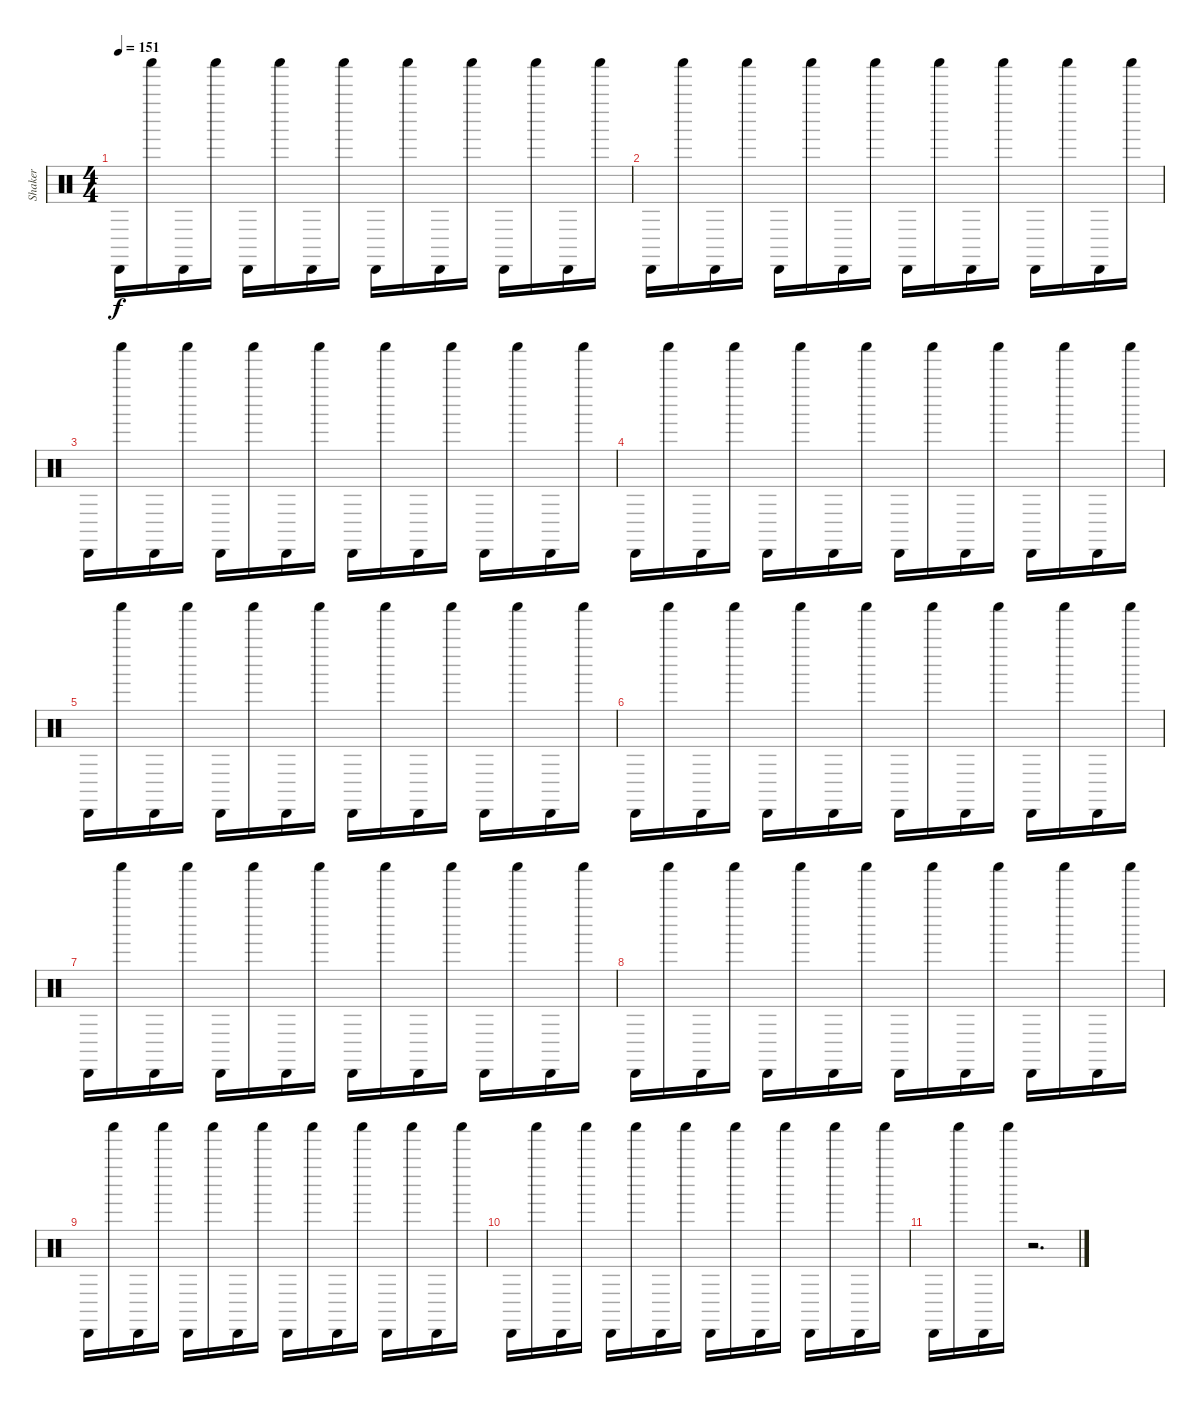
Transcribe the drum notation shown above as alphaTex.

\track ("Shaker" "Shaker") {instrument percussion}
\staff {score}
\articulation defaults
\ts (4 4)
\tempo 151
\clef neutral
\ks c "Cabasa (hit)".16{dy f} "Shaker (hit)".16 "Cabasa (hit)".16 "Shaker (hit)".16 "Cabasa (hit)".16 "Shaker (hit)".16 "Cabasa (hit)".16 "Shaker (hit)".16 "Cabasa (hit)".16 "Shaker (hit)".16 "Cabasa (hit)".16 "Shaker (hit)".16 "Cabasa (hit)".16 "Shaker (hit)".16 "Cabasa (hit)".16 "Shaker (hit)".16
|
"Cabasa (hit)".16 "Shaker (hit)".16 "Cabasa (hit)".16 "Shaker (hit)".16 "Cabasa (hit)".16 "Shaker (hit)".16 "Cabasa (hit)".16 "Shaker (hit)".16 "Cabasa (hit)".16 "Shaker (hit)".16 "Cabasa (hit)".16 "Shaker (hit)".16 "Cabasa (hit)".16 "Shaker (hit)".16 "Cabasa (hit)".16 "Shaker (hit)".16 |
"Cabasa (hit)".16 "Shaker (hit)".16 "Cabasa (hit)".16 "Shaker (hit)".16 "Cabasa (hit)".16 "Shaker (hit)".16 "Cabasa (hit)".16 "Shaker (hit)".16 "Cabasa (hit)".16 "Shaker (hit)".16 "Cabasa (hit)".16 "Shaker (hit)".16 "Cabasa (hit)".16 "Shaker (hit)".16 "Cabasa (hit)".16 "Shaker (hit)".16 |
"Cabasa (hit)".16 "Shaker (hit)".16 "Cabasa (hit)".16 "Shaker (hit)".16 "Cabasa (hit)".16 "Shaker (hit)".16 "Cabasa (hit)".16 "Shaker (hit)".16 "Cabasa (hit)".16 "Shaker (hit)".16 "Cabasa (hit)".16 "Shaker (hit)".16 "Cabasa (hit)".16 "Shaker (hit)".16 "Cabasa (hit)".16 "Shaker (hit)".16 |
"Cabasa (hit)".16 "Shaker (hit)".16 "Cabasa (hit)".16 "Shaker (hit)".16 "Cabasa (hit)".16 "Shaker (hit)".16 "Cabasa (hit)".16 "Shaker (hit)".16 "Cabasa (hit)".16 "Shaker (hit)".16 "Cabasa (hit)".16 "Shaker (hit)".16 "Cabasa (hit)".16 "Shaker (hit)".16 "Cabasa (hit)".16 "Shaker (hit)".16 |
"Cabasa (hit)".16 "Shaker (hit)".16 "Cabasa (hit)".16 "Shaker (hit)".16 "Cabasa (hit)".16 "Shaker (hit)".16 "Cabasa (hit)".16 "Shaker (hit)".16 "Cabasa (hit)".16 "Shaker (hit)".16 "Cabasa (hit)".16 "Shaker (hit)".16 "Cabasa (hit)".16 "Shaker (hit)".16 "Cabasa (hit)".16 "Shaker (hit)".16 |
"Cabasa (hit)".16 "Shaker (hit)".16 "Cabasa (hit)".16 "Shaker (hit)".16 "Cabasa (hit)".16 "Shaker (hit)".16 "Cabasa (hit)".16 "Shaker (hit)".16 "Cabasa (hit)".16 "Shaker (hit)".16 "Cabasa (hit)".16 "Shaker (hit)".16 "Cabasa (hit)".16 "Shaker (hit)".16 "Cabasa (hit)".16 "Shaker (hit)".16 |
"Cabasa (hit)".16 "Shaker (hit)".16 "Cabasa (hit)".16 "Shaker (hit)".16 "Cabasa (hit)".16 "Shaker (hit)".16 "Cabasa (hit)".16 "Shaker (hit)".16 "Cabasa (hit)".16 "Shaker (hit)".16 "Cabasa (hit)".16 "Shaker (hit)".16 "Cabasa (hit)".16 "Shaker (hit)".16 "Cabasa (hit)".16 "Shaker (hit)".16 |
"Cabasa (hit)".16 "Shaker (hit)".16 "Cabasa (hit)".16 "Shaker (hit)".16 "Cabasa (hit)".16 "Shaker (hit)".16 "Cabasa (hit)".16 "Shaker (hit)".16 "Cabasa (hit)".16 "Shaker (hit)".16 "Cabasa (hit)".16 "Shaker (hit)".16 "Cabasa (hit)".16 "Shaker (hit)".16 "Cabasa (hit)".16 "Shaker (hit)".16 |
"Cabasa (hit)".16 "Shaker (hit)".16 "Cabasa (hit)".16 "Shaker (hit)".16 "Cabasa (hit)".16 "Shaker (hit)".16 "Cabasa (hit)".16 "Shaker (hit)".16 "Cabasa (hit)".16 "Shaker (hit)".16 "Cabasa (hit)".16 "Shaker (hit)".16 "Cabasa (hit)".16 "Shaker (hit)".16 "Cabasa (hit)".16 "Shaker (hit)".16 |
"Cabasa (hit)".16 "Shaker (hit)".16 "Cabasa (hit)".16 "Shaker (hit)".16 r.2{d}
